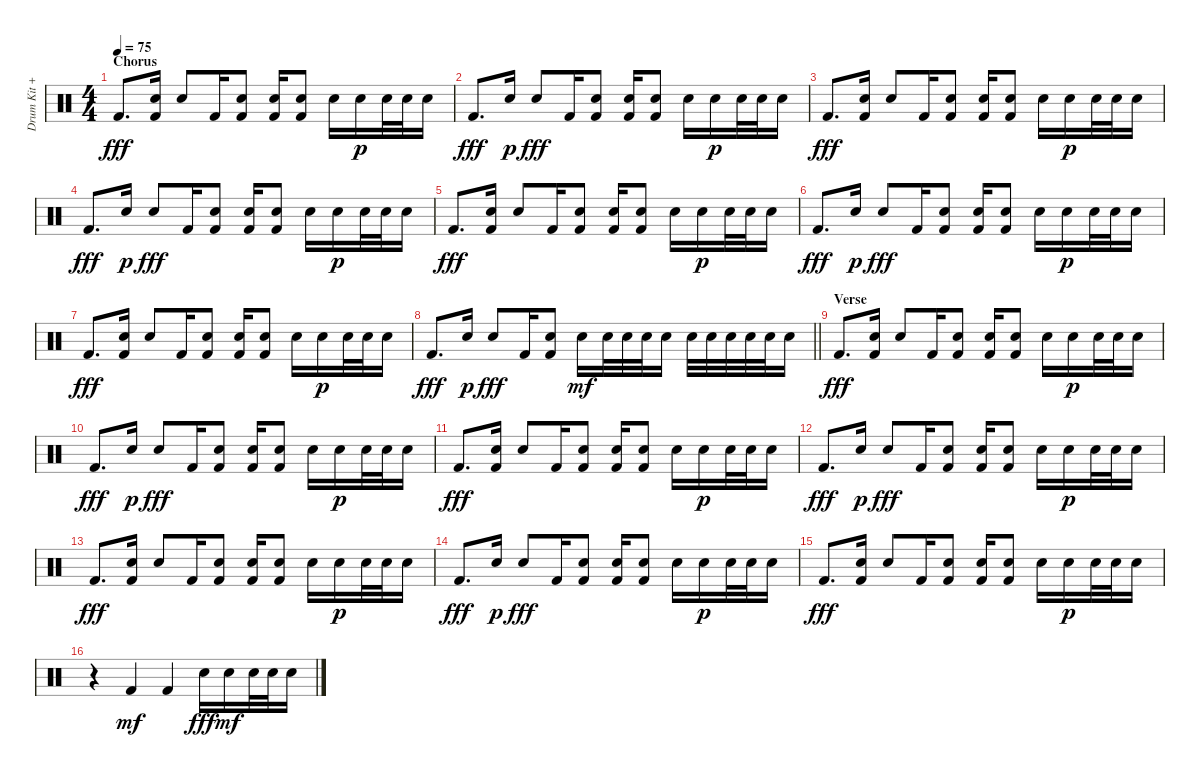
\track ("Drum Kit + Claps" "Drum Kit +") {instrument percussion}
\staff {score}
\articulation defaults
\ts (4 4)
\section ("" "Chorus")
\tempo 75
\clef neutral
\ks c "Kick (hit) 2".8{d dy fff}
("Snare (hit) 2" "Kick (hit) 2").16 "Hand Clap (hit)".8 "Kick (hit) 2".16 ("Snare (hit) 2" "Kick (hit) 2").8 ("Snare (hit) 2" "Kick (hit) 2").16 ("Snare (hit) 2" "Kick (hit) 2").8 "Hand Clap (hit)".16 "Snare (hit) 2".16{dy p} "Snare (hit) 2".32 "Snare (hit) 2".32 "Snare (hit) 2".16 |
"Kick (hit) 2".8{d dy fff} "Snare (hit) 2".16{dy p} "Hand Clap (hit)".8{dy fff} "Kick (hit) 2".16 ("Snare (hit) 2" "Kick (hit) 2").8 ("Snare (hit) 2" "Kick (hit) 2").16 ("Snare (hit) 2" "Kick (hit) 2").8 "Hand Clap (hit)".16 "Snare (hit) 2".16{dy p} "Snare (hit) 2".32 "Snare (hit) 2".32 "Snare (hit) 2".16 |
"Kick (hit) 2".8{d dy fff} ("Snare (hit) 2" "Kick (hit) 2").16 "Hand Clap (hit)".8 "Kick (hit) 2".16 ("Snare (hit) 2" "Kick (hit) 2").8 ("Snare (hit) 2" "Kick (hit) 2").16 ("Snare (hit) 2" "Kick (hit) 2").8 "Hand Clap (hit)".16 "Snare (hit) 2".16{dy p} "Snare (hit) 2".32 "Snare (hit) 2".32 "Snare (hit) 2".16 |
"Kick (hit) 2".8{d dy fff} "Snare (hit) 2".16{dy p} "Hand Clap (hit)".8{dy fff} "Kick (hit) 2".16 ("Snare (hit) 2" "Kick (hit) 2").8 ("Snare (hit) 2" "Kick (hit) 2").16 ("Snare (hit) 2" "Kick (hit) 2").8 "Hand Clap (hit)".16 "Snare (hit) 2".16{dy p} "Snare (hit) 2".32 "Snare (hit) 2".32 "Snare (hit) 2".16 |
"Kick (hit) 2".8{d dy fff} ("Snare (hit) 2" "Kick (hit) 2").16 "Hand Clap (hit)".8 "Kick (hit) 2".16 ("Snare (hit) 2" "Kick (hit) 2").8 ("Snare (hit) 2" "Kick (hit) 2").16 ("Snare (hit) 2" "Kick (hit) 2").8 "Hand Clap (hit)".16 "Snare (hit) 2".16{dy p} "Snare (hit) 2".32 "Snare (hit) 2".32 "Snare (hit) 2".16 |
"Kick (hit) 2".8{d dy fff} "Snare (hit) 2".16{dy p} "Hand Clap (hit)".8{dy fff} "Kick (hit) 2".16 ("Snare (hit) 2" "Kick (hit) 2").8 ("Snare (hit) 2" "Kick (hit) 2").16 ("Snare (hit) 2" "Kick (hit) 2").8 "Hand Clap (hit)".16 "Snare (hit) 2".16{dy p} "Snare (hit) 2".32 "Snare (hit) 2".32 "Snare (hit) 2".16 |
"Kick (hit) 2".8{d dy fff} ("Snare (hit) 2" "Kick (hit) 2").16 "Hand Clap (hit)".8 "Kick (hit) 2".16 ("Snare (hit) 2" "Kick (hit) 2").8 ("Snare (hit) 2" "Kick (hit) 2").16 ("Snare (hit) 2" "Kick (hit) 2").8 "Hand Clap (hit)".16 "Snare (hit) 2".16{dy p} "Snare (hit) 2".32 "Snare (hit) 2".32 "Snare (hit) 2".16 |
\barLineRight lightlight "Kick (hit) 2".8{d dy fff} "Snare (hit) 2".16{dy p} "Hand Clap (hit)".8{dy fff} "Kick (hit) 2".16
("Snare (hit) 2" "Kick (hit) 2").8 "Hand Clap (hit)".16{dy mf} "Hand Clap (hit)".32 "Hand Clap (hit)".32 "Hand Clap (hit)".32 "Hand Clap (hit)".16 "Hand Clap (hit)".32 "Hand Clap (hit)".32 "Hand Clap (hit)".32 "Hand Clap (hit)".32 "Hand Clap (hit)".32 "Hand Clap (hit)".16 |
\section ("" "Verse")
"Kick (hit) 2".8{d dy fff} ("Snare (hit) 2" "Kick (hit) 2").16 "Hand Clap (hit)".8 "Kick (hit) 2".16 ("Snare (hit) 2" "Kick (hit) 2").8 ("Snare (hit) 2" "Kick (hit) 2").16 ("Snare (hit) 2" "Kick (hit) 2").8 "Hand Clap (hit)".16 "Snare (hit) 2".16{dy p} "Snare (hit) 2".32 "Snare (hit) 2".32 "Snare (hit) 2".16 |
"Kick (hit) 2".8{d dy fff} "Snare (hit) 2".16{dy p} "Hand Clap (hit)".8{dy fff} "Kick (hit) 2".16 ("Snare (hit) 2" "Kick (hit) 2").8 ("Snare (hit) 2" "Kick (hit) 2").16 ("Snare (hit) 2" "Kick (hit) 2").8 "Hand Clap (hit)".16 "Snare (hit) 2".16{dy p} "Snare (hit) 2".32 "Snare (hit) 2".32 "Snare (hit) 2".16 |
"Kick (hit) 2".8{d dy fff} ("Snare (hit) 2" "Kick (hit) 2").16 "Hand Clap (hit)".8 "Kick (hit) 2".16 ("Snare (hit) 2" "Kick (hit) 2").8 ("Snare (hit) 2" "Kick (hit) 2").16 ("Snare (hit) 2" "Kick (hit) 2").8 "Hand Clap (hit)".16 "Snare (hit) 2".16{dy p} "Snare (hit) 2".32 "Snare (hit) 2".32 "Snare (hit) 2".16 |
"Kick (hit) 2".8{d dy fff} "Snare (hit) 2".16{dy p} "Hand Clap (hit)".8{dy fff} "Kick (hit) 2".16 ("Snare (hit) 2" "Kick (hit) 2").8 ("Snare (hit) 2" "Kick (hit) 2").16 ("Snare (hit) 2" "Kick (hit) 2").8 "Hand Clap (hit)".16 "Snare (hit) 2".16{dy p} "Snare (hit) 2".32 "Snare (hit) 2".32 "Snare (hit) 2".16 |
"Kick (hit) 2".8{d dy fff} ("Snare (hit) 2" "Kick (hit) 2").16 "Hand Clap (hit)".8 "Kick (hit) 2".16 ("Snare (hit) 2" "Kick (hit) 2").8 ("Snare (hit) 2" "Kick (hit) 2").16 ("Snare (hit) 2" "Kick (hit) 2").8 "Hand Clap (hit)".16 "Snare (hit) 2".16{dy p} "Snare (hit) 2".32 "Snare (hit) 2".32 "Snare (hit) 2".16 |
"Kick (hit) 2".8{d dy fff} "Snare (hit) 2".16{dy p} "Hand Clap (hit)".8{dy fff} "Kick (hit) 2".16 ("Snare (hit) 2" "Kick (hit) 2").8 ("Snare (hit) 2" "Kick (hit) 2").16 ("Snare (hit) 2" "Kick (hit) 2").8 "Hand Clap (hit)".16 "Snare (hit) 2".16{dy p} "Snare (hit) 2".32 "Snare (hit) 2".32 "Snare (hit) 2".16 |
"Kick (hit) 2".8{d dy fff} ("Snare (hit) 2" "Kick (hit) 2").16 "Hand Clap (hit)".8 "Kick (hit) 2".16 ("Snare (hit) 2" "Kick (hit) 2").8 ("Snare (hit) 2" "Kick (hit) 2").16 ("Snare (hit) 2" "Kick (hit) 2").8 "Hand Clap (hit)".16 "Snare (hit) 2".16{dy p} "Snare (hit) 2".32 "Snare (hit) 2".32 "Snare (hit) 2".16 |
r.4 "Kick (hit) 2".4{dy mf} "Kick (hit) 2".4 "Hand Clap (hit)".16{dy fff} "Hand Clap (hit)".16{dy mf} "Hand Clap (hit)".32 "Hand Clap (hit)".32 "Hand Clap (hit)".16
